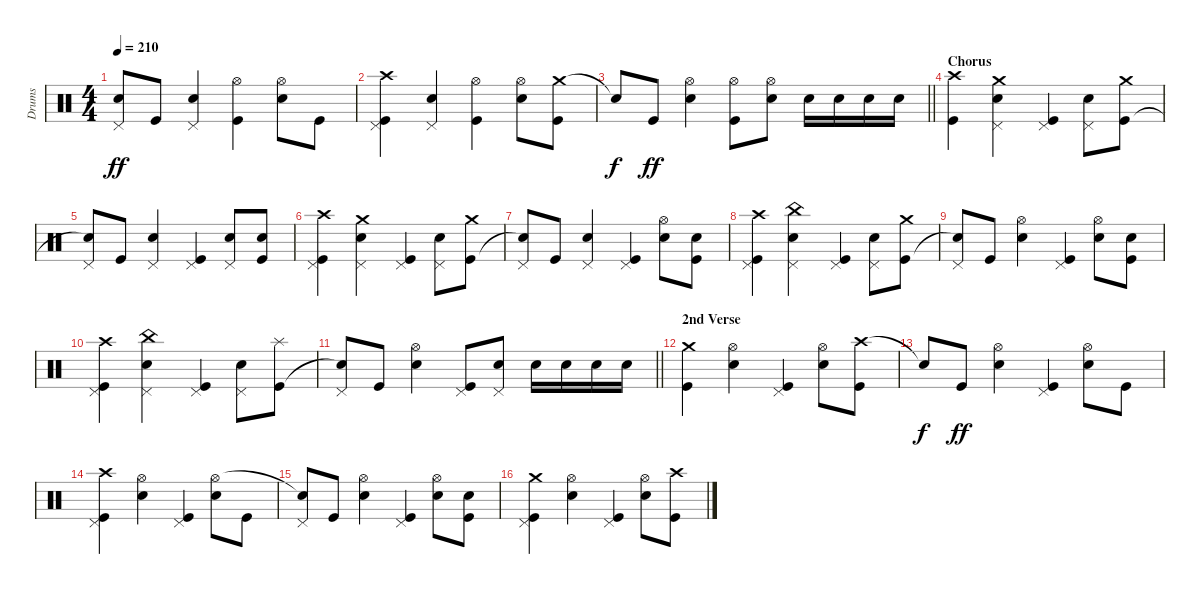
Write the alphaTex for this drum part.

\track ("Drums" "Drums") {instrument percussion}
\staff {score}
\articulation defaults
\ts (4 4)
\tempo 210
\clef neutral
\ks c
("Pedal Hi-Hat (hit)" "Snare (hit)"{t}).8{dy ff} "Kick (hit)".8 ("Electric Snare (hit)" "Pedal Hi-Hat (hit)").4 ("Hi-Hat (open)" "Kick (hit)").4 ("Electric Snare (hit)" "Hi-Hat (open)").8 "Kick (hit)".8 |
("Crash high (hit)" "Pedal Hi-Hat (hit)" "Kick (hit)").4 ("Electric Snare (hit)" "Pedal Hi-Hat (hit)").4 ("Hi-Hat (open)" "Kick (hit)").4 ("Electric Snare (hit)" "Hi-Hat (open)").8 ("Crash medium (hit)" "Kick (hit)").8 |
\barLineRight lightlight "Snare (hit)"{t}.8{dy f} "Kick (hit)".8{dy ff}
("Electric Snare (hit)" "Hi-Hat (open)").4 ("Hi-Hat (open)" "Kick (hit)").8 ("Electric Snare (hit)" "Hi-Hat (open)").8 "Electric Snare (hit)".16 "Electric Snare (hit)".16 "Electric Snare (hit)".16 "Electric Snare (hit)".16 |
\section ("" "Chorus")
("Crash high (hit)" "Kick (hit)").4 ("Crash medium (hit)" "Electric Snare (hit)" "Pedal Hi-Hat (hit)").4 ("Pedal Hi-Hat (hit)" "Kick (hit)").4 ("Electric Snare (hit)" "Pedal Hi-Hat (hit)").8 ("Crash medium (hit)" "Kick (hit)").8 |
("Pedal Hi-Hat (hit)" "Snare (hit)"{t}).8 "Kick (hit)".8 ("Electric Snare (hit)" "Pedal Hi-Hat (hit)").4 ("Pedal Hi-Hat (hit)" "Kick (hit)").4 ("Electric Snare (hit)" "Pedal Hi-Hat (hit)").8 ("Electric Snare (hit)" "Kick (hit)").8 |
("Crash high (hit)" "Pedal Hi-Hat (hit)" "Kick (hit)").4 ("Crash medium (hit)" "Electric Snare (hit)" "Pedal Hi-Hat (hit)").4 ("Pedal Hi-Hat (hit)" "Kick (hit)").4 ("Electric Snare (hit)" "Pedal Hi-Hat (hit)").8 ("Crash medium (hit)" "Kick (hit)").8 |
("Pedal Hi-Hat (hit)" "Snare (hit)"{t}).8 "Kick (hit)".8 ("Electric Snare (hit)" "Pedal Hi-Hat (hit)").4 ("Pedal Hi-Hat (hit)" "Kick (hit)").4 ("Electric Snare (hit)" "Hi-Hat (open)").8 ("Electric Snare (hit)" "Kick (hit)").8 |
("Crash high (hit)" "Pedal Hi-Hat (hit)" "Kick (hit)").4 ("China (hit)" "Electric Snare (hit)" "Pedal Hi-Hat (hit)").4 ("Pedal Hi-Hat (hit)" "Kick (hit)").4 ("Electric Snare (hit)" "Pedal Hi-Hat (hit)").8 ("Crash medium (hit)" "Kick (hit)").8 |
("Pedal Hi-Hat (hit)" "Snare (hit)"{t}).8 "Kick (hit)".8 ("Electric Snare (hit)" "Hi-Hat (open)").4 ("Pedal Hi-Hat (hit)" "Kick (hit)").4 ("Electric Snare (hit)" "Hi-Hat (open)").8 ("Electric Snare (hit)" "Kick (hit)").8 |
("Crash high (hit)" "Pedal Hi-Hat (hit)" "Kick (hit)").4 ("China (hit)" "Electric Snare (hit)" "Pedal Hi-Hat (hit)").4 ("Pedal Hi-Hat (hit)" "Kick (hit)").4 ("Electric Snare (hit)" "Pedal Hi-Hat (hit)").8 ("Splash (hit)" "Kick (hit)").8 |
\barLineRight lightlight
("Pedal Hi-Hat (hit)" "Snare (hit)"{t}).8 "Kick (hit)".8 ("Electric Snare (hit)" "Hi-Hat (open)").4 ("Pedal Hi-Hat (hit)" "Kick (hit)").8 ("Electric Snare (hit)" "Pedal Hi-Hat (hit)").8 "Electric Snare (hit)".16 "Electric Snare (hit)".16 "Electric Snare (hit)".16 "Electric Snare (hit)".16 |
\section ("" "2nd Verse")
("Crash medium (hit)" "Kick (hit)").4 ("Electric Snare (hit)" "Hi-Hat (open)").4 ("Pedal Hi-Hat (hit)" "Kick (hit)").4 ("Electric Snare (hit)" "Hi-Hat (open)").8 ("Crash high (hit)" "Kick (hit)").8 |
"Snare (hit)"{t}.8{dy f} "Kick (hit)".8{dy ff} ("Electric Snare (hit)" "Hi-Hat (open)").4 ("Pedal Hi-Hat (hit)" "Kick (hit)").4 ("Electric Snare (hit)" "Hi-Hat (open)").8 "Kick (hit)".8 |
("Crash high (hit)" "Pedal Hi-Hat (hit)" "Kick (hit)").4 ("Electric Snare (hit)" "Hi-Hat (open)").4 ("Pedal Hi-Hat (hit)" "Kick (hit)").4 ("Electric Snare (hit)" "Hi-Hat (open)").8 "Kick (hit)".8 |
("Pedal Hi-Hat (hit)" "Snare (hit)"{t}).8 "Kick (hit)".8 ("Electric Snare (hit)" "Hi-Hat (open)").4 ("Pedal Hi-Hat (hit)" "Kick (hit)").4 ("Electric Snare (hit)" "Hi-Hat (open)").8 ("Electric Snare (hit)" "Kick (hit)").8 |
("Crash medium (hit)" "Pedal Hi-Hat (hit)" "Kick (hit)").4 ("Electric Snare (hit)" "Hi-Hat (open)").4 ("Pedal Hi-Hat (hit)" "Kick (hit)").4 ("Electric Snare (hit)" "Hi-Hat (open)").8 ("Crash high (hit)" "Kick (hit)").8
